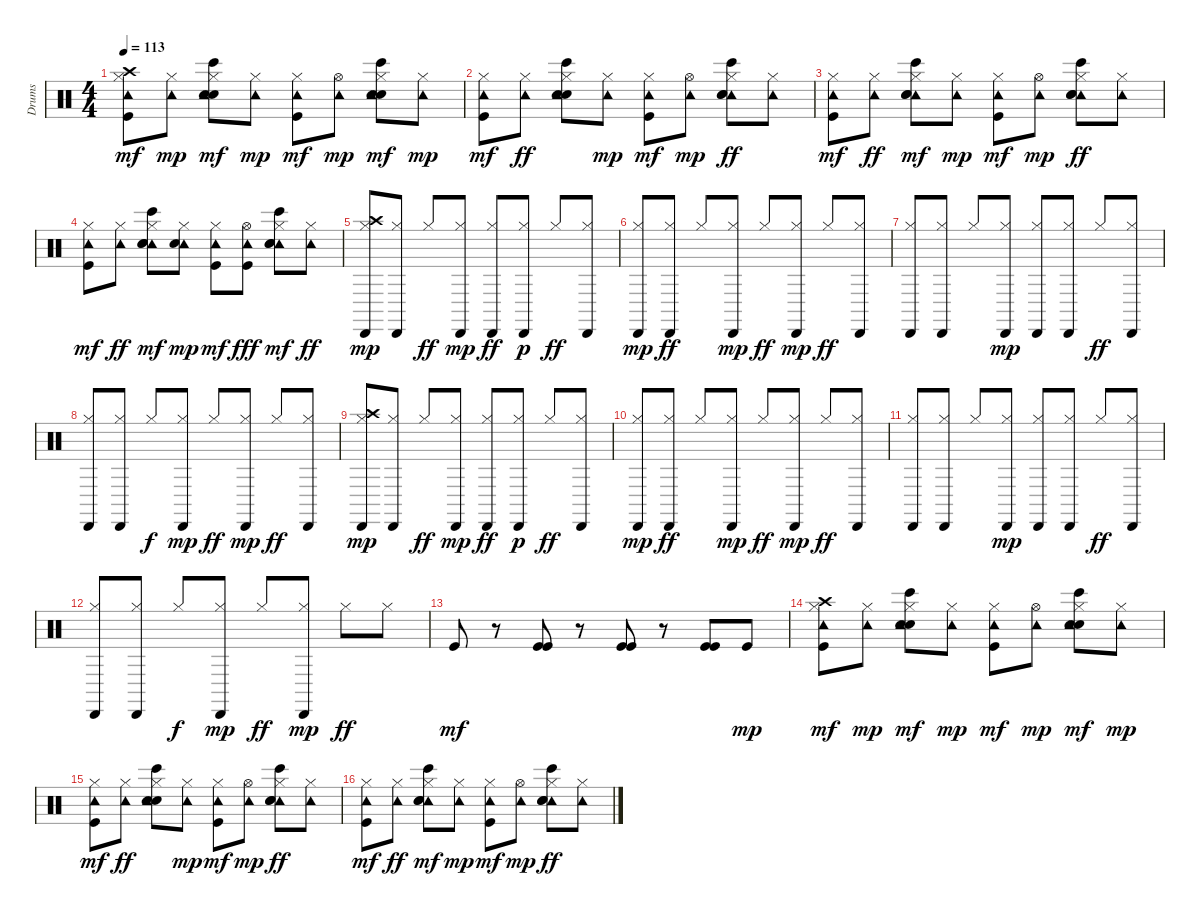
\track ("Drums" "Drums") {instrument percussion}
\staff {score}
\articulation defaults
\ts (4 4)
\tempo 113
\clef neutral
\ks c
("Kick (hit)" "Hi-Hat (closed)" "Crash high (hit)" "Tambourine (hit)").8{dy mf} ("Tambourine (hit)" "Hi-Hat (closed)").8{dy mp} ("Hi-Hat (closed)" "Bongo High (hit)" "Snare (hit) 2" "Hand Clap (hit)" "Tambourine (hit)").8{dy mf} ("Hi-Hat (closed)" "Tambourine (hit)").8{dy mp} ("Kick (hit)" "Hi-Hat (closed)" "Tambourine (hit)").8{dy mf} ("Tambourine (hit)" "Hi-Hat (open)").8{dy mp} ("Hi-Hat (closed)" "Bongo High (hit)" "Snare (hit) 2" "Hand Clap (hit)" "Tambourine (hit)").8{dy mf} ("Hi-Hat (closed)" "Tambourine (hit)").8{dy mp} |
("Kick (hit)" "Hi-Hat (closed)" "Tambourine (hit)").8{dy mf} ("Tambourine (hit)" "Hi-Hat (closed)").8{dy ff} ("Bongo High (hit)" "Snare (hit) 2" "Hand Clap (hit)" "Tambourine (hit)" "Hi-Hat (closed)").8 ("Hi-Hat (closed)" "Tambourine (hit)").8{dy mp} ("Kick (hit)" "Hi-Hat (closed)" "Tambourine (hit)").8{dy mf} ("Tambourine (hit)" "Hi-Hat (open)").8{dy mp} ("Tambourine (hit)" "Bongo High (hit)" "Snare (hit) 2" "Hand Clap (hit)" "Hi-Hat (closed)").8{dy ff} ("Tambourine (hit)" "Hi-Hat (closed)").8 |
("Kick (hit)" "Hi-Hat (closed)" "Tambourine (hit)").8{dy mf} ("Tambourine (hit)" "Hi-Hat (closed)").8{dy ff} ("Tambourine (hit)" "Hi-Hat (closed)" "Bongo High (hit)" "Snare (hit) 2" "Hand Clap (hit)").8{dy mf} ("Hi-Hat (closed)" "Tambourine (hit)").8{dy mp} ("Kick (hit)" "Hi-Hat (closed)" "Tambourine (hit)").8{dy mf} ("Tambourine (hit)" "Hi-Hat (open)").8{dy mp} ("Tambourine (hit)" "Bongo High (hit)" "Snare (hit) 2" "Hand Clap (hit)" "Hi-Hat (closed)").8{dy ff} ("Tambourine (hit)" "Hi-Hat (closed)").8 |
("Kick (hit)" "Hi-Hat (closed)" "Tambourine (hit)").8{dy mf} ("Tambourine (hit)" "Hi-Hat (closed)").8{dy ff} ("Hi-Hat (closed)" "Tambourine (hit)" "Bongo High (hit)" "Snare (hit) 2" "Hand Clap (hit)").8{dy mf} ("Hi-Hat (closed)" "Tambourine (hit)" "Snare (hit) 2").8{dy mp} ("Kick (hit)" "Hi-Hat (closed)" "Tambourine (hit)").8{dy mf} ("Hi-Hat (open)" "Tambourine (hit)" "Kick (hit)").8{dy fff} ("Hi-Hat (closed)" "Tambourine (hit)" "Bongo High (hit)" "Snare (hit) 2" "Hand Clap (hit)").8{dy mf} ("Tambourine (hit)" "Hi-Hat (closed)").8{dy ff} |
("Hi-Hat (closed)" "Crash high (hit)" "Cabasa (hit)").8{dy mp} ("Cabasa (hit)" "Hi-Hat (closed)").8 "Hi-Hat (closed)".8{dy ff} ("Hi-Hat (closed)" "Cabasa (hit)").8{dy mp} ("Cabasa (hit)" "Hi-Hat (closed)").8{dy ff} ("Cabasa (hit)" "Hi-Hat (closed)").8{dy p} "Hi-Hat (closed)".8{dy ff} ("Cabasa (hit)" "Hi-Hat (closed)").8 |
("Cabasa (hit)" "Hi-Hat (closed)").8{dy mp} ("Hi-Hat (closed)" "Cabasa (hit)").8{dy ff} "Hi-Hat (closed)".8 ("Hi-Hat (closed)" "Cabasa (hit)").8{dy mp} "Hi-Hat (closed)".8{dy ff} ("Cabasa (hit)" "Hi-Hat (closed)").8{dy mp} "Hi-Hat (closed)".8{dy ff} ("Cabasa (hit)" "Hi-Hat (closed)").8 |
("Cabasa (hit)" "Hi-Hat (closed)").8 ("Cabasa (hit)" "Hi-Hat (closed)").8 "Hi-Hat (closed)".8 ("Hi-Hat (closed)" "Cabasa (hit)").8{dy mp} ("Hi-Hat (closed)" "Cabasa (hit)").8 ("Hi-Hat (closed)" "Cabasa (hit)").8 "Hi-Hat (closed)".8{dy ff} ("Cabasa (hit)" "Hi-Hat (closed)").8 |
("Cabasa (hit)" "Hi-Hat (closed)").8 ("Cabasa (hit)" "Hi-Hat (closed)").8 "Hi-Hat (closed)".8{dy f} ("Hi-Hat (closed)" "Cabasa (hit)").8{dy mp} "Hi-Hat (closed)".8{dy ff} ("Cabasa (hit)" "Hi-Hat (closed)").8{dy mp} "Hi-Hat (closed)".8{dy ff} ("Cabasa (hit)" "Hi-Hat (closed)").8 |
("Hi-Hat (closed)" "Crash high (hit)" "Cabasa (hit)").8{dy mp} ("Cabasa (hit)" "Hi-Hat (closed)").8 "Hi-Hat (closed)".8{dy ff} ("Hi-Hat (closed)" "Cabasa (hit)").8{dy mp} ("Cabasa (hit)" "Hi-Hat (closed)").8{dy ff} ("Cabasa (hit)" "Hi-Hat (closed)").8{dy p} "Hi-Hat (closed)".8{dy ff} ("Cabasa (hit)" "Hi-Hat (closed)").8 |
("Cabasa (hit)" "Hi-Hat (closed)").8{dy mp} ("Hi-Hat (closed)" "Cabasa (hit)").8{dy ff} "Hi-Hat (closed)".8 ("Hi-Hat (closed)" "Cabasa (hit)").8{dy mp} "Hi-Hat (closed)".8{dy ff} ("Cabasa (hit)" "Hi-Hat (closed)").8{dy mp} "Hi-Hat (closed)".8{dy ff} ("Cabasa (hit)" "Hi-Hat (closed)").8 |
("Cabasa (hit)" "Hi-Hat (closed)").8 ("Cabasa (hit)" "Hi-Hat (closed)").8 "Hi-Hat (closed)".8 ("Hi-Hat (closed)" "Cabasa (hit)").8{dy mp} ("Hi-Hat (closed)" "Cabasa (hit)").8 ("Hi-Hat (closed)" "Cabasa (hit)").8 "Hi-Hat (closed)".8{dy ff} ("Cabasa (hit)" "Hi-Hat (closed)").8 |
("Cabasa (hit)" "Hi-Hat (closed)").8 ("Cabasa (hit)" "Hi-Hat (closed)").8 "Hi-Hat (closed)".8{dy f} ("Hi-Hat (closed)" "Cabasa (hit)").8{dy mp} "Hi-Hat (closed)".8{dy ff} ("Cabasa (hit)" "Hi-Hat (closed)").8{dy mp} "Hi-Hat (closed)".8{dy ff} "Hi-Hat (closed)".8 |
"Kick (hit)".8{dy mf} r.8 ("Kick (hit)" "Kick (hit)").8 r.8 ("Kick (hit)" "Kick (hit)").8 r.8 ("Kick (hit)" "Kick (hit)").8 "Kick (hit)".8{dy mp} |
("Kick (hit)" "Hi-Hat (closed)" "Crash high (hit)" "Tambourine (hit)").8{dy mf} ("Tambourine (hit)" "Hi-Hat (closed)").8{dy mp} ("Hi-Hat (closed)" "Bongo High (hit)" "Snare (hit) 2" "Hand Clap (hit)" "Tambourine (hit)").8{dy mf} ("Hi-Hat (closed)" "Tambourine (hit)").8{dy mp} ("Kick (hit)" "Hi-Hat (closed)" "Tambourine (hit)").8{dy mf} ("Tambourine (hit)" "Hi-Hat (open)").8{dy mp} ("Hi-Hat (closed)" "Bongo High (hit)" "Snare (hit) 2" "Hand Clap (hit)" "Tambourine (hit)").8{dy mf} ("Hi-Hat (closed)" "Tambourine (hit)").8{dy mp} |
("Kick (hit)" "Hi-Hat (closed)" "Tambourine (hit)").8{dy mf} ("Tambourine (hit)" "Hi-Hat (closed)").8{dy ff} ("Bongo High (hit)" "Snare (hit) 2" "Hand Clap (hit)" "Tambourine (hit)" "Hi-Hat (closed)").8 ("Hi-Hat (closed)" "Tambourine (hit)").8{dy mp} ("Kick (hit)" "Hi-Hat (closed)" "Tambourine (hit)").8{dy mf} ("Tambourine (hit)" "Hi-Hat (open)").8{dy mp} ("Tambourine (hit)" "Bongo High (hit)" "Snare (hit) 2" "Hand Clap (hit)" "Hi-Hat (closed)").8{dy ff} ("Tambourine (hit)" "Hi-Hat (closed)").8 |
("Kick (hit)" "Hi-Hat (closed)" "Tambourine (hit)").8{dy mf} ("Tambourine (hit)" "Hi-Hat (closed)").8{dy ff} ("Tambourine (hit)" "Hi-Hat (closed)" "Bongo High (hit)" "Snare (hit) 2" "Hand Clap (hit)").8{dy mf} ("Hi-Hat (closed)" "Tambourine (hit)").8{dy mp} ("Kick (hit)" "Hi-Hat (closed)" "Tambourine (hit)").8{dy mf} ("Tambourine (hit)" "Hi-Hat (open)").8{dy mp} ("Tambourine (hit)" "Bongo High (hit)" "Snare (hit) 2" "Hand Clap (hit)" "Hi-Hat (closed)").8{dy ff} ("Tambourine (hit)" "Hi-Hat (closed)").8
